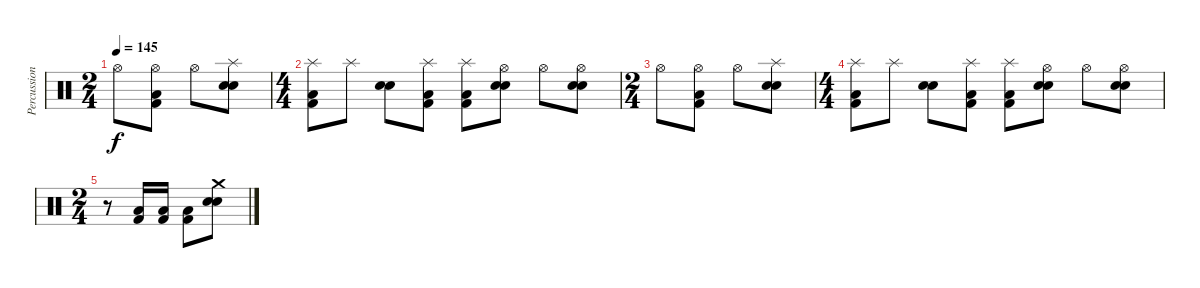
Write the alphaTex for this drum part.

\track ("Percussions" "Percussion") {instrument percussion}
\staff {score}
\articulation defaults
\ts (2 4)
\tempo 145
\clef neutral
\ks c "Hi-Hat (open)".8{dy f}
("Hi-Hat (open)" "Low Floor Tom (hit)" "Kick (hit) 2").8 "Hi-Hat (open)".8 ("Splash (hit)" "Snare (hit) 2" "Electric Snare (hit)").8 |
\ts (4 4)
("Splash (hit)" "Low Floor Tom (hit)" "Kick (hit) 2").8 "Splash (hit)".8 ("Snare (hit) 2" "Electric Snare (hit)").8 ("Splash (hit)" "Low Floor Tom (hit)" "Kick (hit) 2").8 ("Splash (hit)" "Low Floor Tom (hit)" "Kick (hit) 2").8 ("Hi-Hat (open)" "Snare (hit) 2" "Electric Snare (hit)").8 "Hi-Hat (open)".8 ("Hi-Hat (open)" "Snare (hit) 2" "Electric Snare (hit)").8 |
\ts (2 4)
"Hi-Hat (open)".8 ("Hi-Hat (open)" "Low Floor Tom (hit)" "Kick (hit) 2").8 "Hi-Hat (open)".8 ("Splash (hit)" "Snare (hit) 2" "Electric Snare (hit)").8 |
\ts (4 4)
("Splash (hit)" "Low Floor Tom (hit)" "Kick (hit) 2").8 "Splash (hit)".8 ("Snare (hit) 2" "Electric Snare (hit)").8 ("Splash (hit)" "Low Floor Tom (hit)" "Kick (hit) 2").8 ("Splash (hit)" "Low Floor Tom (hit)" "Kick (hit) 2").8 ("Hi-Hat (open)" "Snare (hit) 2" "Electric Snare (hit)").8 "Hi-Hat (open)".8 ("Hi-Hat (open)" "Snare (hit) 2" "Electric Snare (hit)").8 |
\ts (2 4)
r.8 ("Low Floor Tom (hit)" "Kick (hit) 2").16 ("Low Floor Tom (hit)" "Kick (hit) 2").16 ("Low Floor Tom (hit)" "Kick (hit) 2").8 ("Crash medium (hit)" "Snare (hit) 2" "Electric Snare (hit)").8
